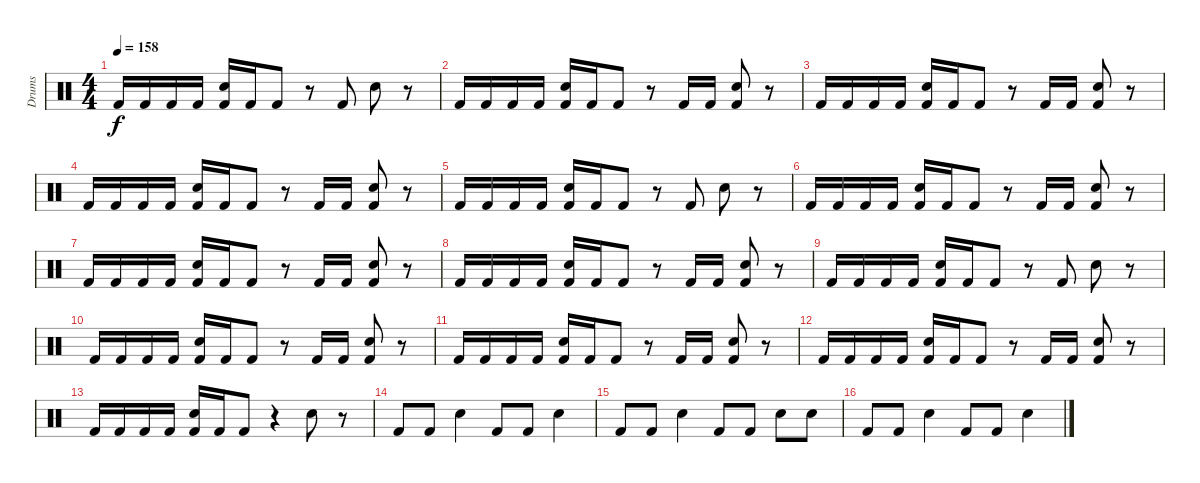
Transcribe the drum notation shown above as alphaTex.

\track ("Drums" "Drums") {instrument percussion}
\staff {score}
\articulation defaults
\ts (4 4)
\tempo 158
\clef neutral
\ks c "Kick (hit) 2".16{dy f} "Kick (hit) 2".16 "Kick (hit) 2".16 "Kick (hit) 2".16
("Snare (hit) 2" "Kick (hit) 2").16 "Kick (hit) 2".16 "Kick (hit) 2".8 r.8 "Kick (hit) 2".8 "Snare (hit) 2".8 r.8 |
"Kick (hit) 2".16 "Kick (hit) 2".16 "Kick (hit) 2".16 "Kick (hit) 2".16 ("Snare (hit) 2" "Kick (hit) 2").16 "Kick (hit) 2".16 "Kick (hit) 2".8 r.8 "Kick (hit) 2".16 "Kick (hit) 2".16 ("Snare (hit) 2" "Kick (hit) 2").8 r.8 |
"Kick (hit) 2".16 "Kick (hit) 2".16 "Kick (hit) 2".16 "Kick (hit) 2".16 ("Snare (hit) 2" "Kick (hit) 2").16 "Kick (hit) 2".16 "Kick (hit) 2".8 r.8 "Kick (hit) 2".16 "Kick (hit) 2".16 ("Snare (hit) 2" "Kick (hit) 2").8 r.8 |
"Kick (hit) 2".16 "Kick (hit) 2".16 "Kick (hit) 2".16 "Kick (hit) 2".16 ("Snare (hit) 2" "Kick (hit) 2").16 "Kick (hit) 2".16 "Kick (hit) 2".8 r.8 "Kick (hit) 2".16 "Kick (hit) 2".16 ("Snare (hit) 2" "Kick (hit) 2").8 r.8 |
"Kick (hit) 2".16 "Kick (hit) 2".16 "Kick (hit) 2".16 "Kick (hit) 2".16 ("Snare (hit) 2" "Kick (hit) 2").16 "Kick (hit) 2".16 "Kick (hit) 2".8 r.8 "Kick (hit) 2".8 "Snare (hit) 2".8 r.8 |
"Kick (hit) 2".16 "Kick (hit) 2".16 "Kick (hit) 2".16 "Kick (hit) 2".16 ("Snare (hit) 2" "Kick (hit) 2").16 "Kick (hit) 2".16 "Kick (hit) 2".8 r.8 "Kick (hit) 2".16 "Kick (hit) 2".16 ("Snare (hit) 2" "Kick (hit) 2").8 r.8 |
"Kick (hit) 2".16 "Kick (hit) 2".16 "Kick (hit) 2".16 "Kick (hit) 2".16 ("Snare (hit) 2" "Kick (hit) 2").16 "Kick (hit) 2".16 "Kick (hit) 2".8 r.8 "Kick (hit) 2".16 "Kick (hit) 2".16 ("Snare (hit) 2" "Kick (hit) 2").8 r.8 |
"Kick (hit) 2".16 "Kick (hit) 2".16 "Kick (hit) 2".16 "Kick (hit) 2".16 ("Snare (hit) 2" "Kick (hit) 2").16 "Kick (hit) 2".16 "Kick (hit) 2".8 r.8 "Kick (hit) 2".16 "Kick (hit) 2".16 ("Snare (hit) 2" "Kick (hit) 2").8 r.8 |
"Kick (hit) 2".16 "Kick (hit) 2".16 "Kick (hit) 2".16 "Kick (hit) 2".16 ("Snare (hit) 2" "Kick (hit) 2").16 "Kick (hit) 2".16 "Kick (hit) 2".8 r.8 "Kick (hit) 2".8 "Snare (hit) 2".8 r.8 |
"Kick (hit) 2".16 "Kick (hit) 2".16 "Kick (hit) 2".16 "Kick (hit) 2".16 ("Snare (hit) 2" "Kick (hit) 2").16 "Kick (hit) 2".16 "Kick (hit) 2".8 r.8 "Kick (hit) 2".16 "Kick (hit) 2".16 ("Snare (hit) 2" "Kick (hit) 2").8 r.8 |
"Kick (hit) 2".16 "Kick (hit) 2".16 "Kick (hit) 2".16 "Kick (hit) 2".16 ("Snare (hit) 2" "Kick (hit) 2").16 "Kick (hit) 2".16 "Kick (hit) 2".8 r.8 "Kick (hit) 2".16 "Kick (hit) 2".16 ("Snare (hit) 2" "Kick (hit) 2").8 r.8 |
"Kick (hit) 2".16 "Kick (hit) 2".16 "Kick (hit) 2".16 "Kick (hit) 2".16 ("Snare (hit) 2" "Kick (hit) 2").16 "Kick (hit) 2".16 "Kick (hit) 2".8 r.8 "Kick (hit) 2".16 "Kick (hit) 2".16 ("Snare (hit) 2" "Kick (hit) 2").8 r.8 |
"Kick (hit) 2".16 "Kick (hit) 2".16 "Kick (hit) 2".16 "Kick (hit) 2".16 ("Snare (hit) 2" "Kick (hit) 2").16 "Kick (hit) 2".16 "Kick (hit) 2".8 r.4 "Snare (hit) 2".8 r.8 |
"Kick (hit) 2".8 "Kick (hit) 2".8 "Snare (hit) 2".4 "Kick (hit) 2".8 "Kick (hit) 2".8 "Snare (hit) 2".4 |
"Kick (hit) 2".8 "Kick (hit) 2".8 "Snare (hit) 2".4 "Kick (hit) 2".8 "Kick (hit) 2".8 "Snare (hit) 2".8 "Snare (hit) 2".8 |
"Kick (hit) 2".8 "Kick (hit) 2".8 "Snare (hit) 2".4 "Kick (hit) 2".8 "Kick (hit) 2".8 "Snare (hit) 2".4
